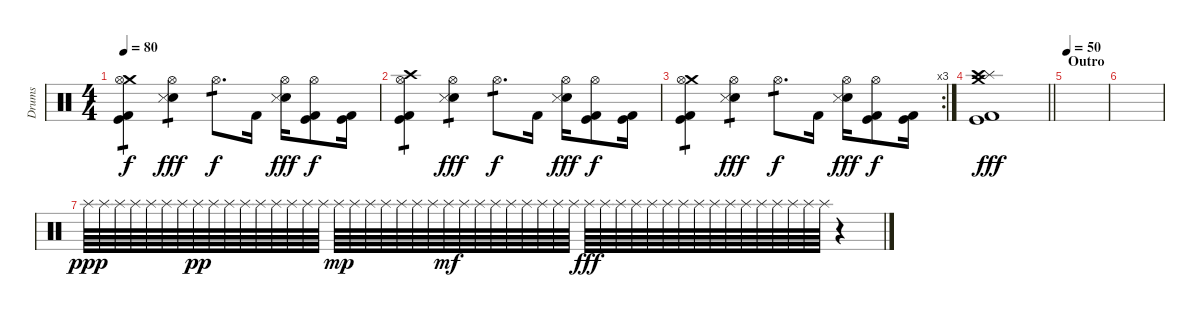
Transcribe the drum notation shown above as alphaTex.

\track ("Drums" "Drums") {instrument percussion}
\staff {score}
\articulation defaults
\ts (4 4)
\tempo 80
\clef neutral
\ks c
("Crash medium (hit)" "Hi-Hat (open)" "Kick (hit)" "Kick (hit) 2").4{tp 1 dy f} ("Hi-Hat (open)" "Snare (hit) 2" "Snare (side stick) 3").4{tp 1 dy fff} "Hi-Hat (open)".8{d tp 1 dy f} "Kick (hit) 2".16 ("Hi-Hat (open)" "Snare (hit) 2" "Snare (side stick) 3").16{dy fff} ("Hi-Hat (open)" "Kick (hit)" "Kick (hit) 2").8{dy f} ("Kick (hit)" "Kick (hit) 2").16 |
("Crash high (hit)" "Hi-Hat (open)" "Kick (hit)" "Kick (hit) 2").4{tp 1} ("Hi-Hat (open)" "Snare (hit) 2" "Snare (side stick) 3").4{tp 1 dy fff} "Hi-Hat (open)".8{d tp 1 dy f} "Kick (hit) 2".16 ("Hi-Hat (open)" "Snare (hit) 2" "Snare (side stick) 3").16{dy fff} ("Hi-Hat (open)" "Kick (hit)" "Kick (hit) 2").8{dy f} ("Kick (hit)" "Kick (hit) 2").16 |
\rc 3
("Crash medium (hit)" "Hi-Hat (open)" "Kick (hit)" "Kick (hit) 2").4{tp 1} ("Hi-Hat (open)" "Snare (hit) 2" "Snare (side stick) 3").4{tp 1 dy fff} "Hi-Hat (open)".8{d tp 1 dy f} "Kick (hit) 2".16 ("Hi-Hat (open)" "Snare (hit) 2" "Snare (side stick) 3").16{dy fff} ("Hi-Hat (open)" "Kick (hit)" "Kick (hit) 2").8{dy f} ("Kick (hit)" "Kick (hit) 2").16 |
\barLineRight lightlight
("Splash (hit)" "Crash medium (hit)" "Crash high (hit)" "Kick (hit)" "Kick (hit) 2").1{dy fff} |
\section ("" "Outro")
\tempo 50
|
|
"Splash (hit)".64{dy ppp} "Splash (hit)".64 "Splash (hit)".64 "Splash (hit)".64 "Splash (hit)".64 "Splash (hit)".64 "Splash (hit)".64 "Splash (hit)".64{dy pp} "Splash (hit)".64 "Splash (hit)".64 "Splash (hit)".64 "Splash (hit)".64 "Splash (hit)".64 "Splash (hit)".64 "Splash (hit)".64 "Splash (hit)".64 "Splash (hit)".64{dy mp} "Splash (hit)".64 "Splash (hit)".64 "Splash (hit)".64 "Splash (hit)".64 "Splash (hit)".64 "Splash (hit)".64 "Splash (hit)".64{dy mf} "Splash (hit)".64 "Splash (hit)".64 "Splash (hit)".64 "Splash (hit)".64 "Splash (hit)".64 "Splash (hit)".64 "Splash (hit)".64 "Splash (hit)".64 "Splash (hit)".64{dy fff} "Splash (hit)".64 "Splash (hit)".64 "Splash (hit)".64 "Splash (hit)".64 "Splash (hit)".64 "Splash (hit)".64 "Splash (hit)".64 "Splash (hit)".64 "Splash (hit)".64 "Splash (hit)".64 "Splash (hit)".64 "Splash (hit)".64 "Splash (hit)".64 "Splash (hit)".64 "Splash (hit)".64 r.4
